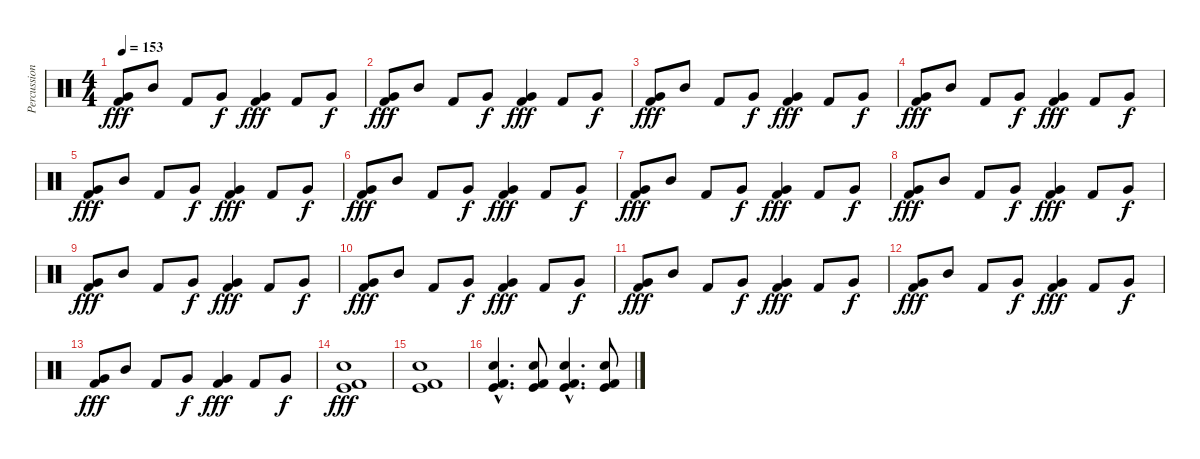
\track ("Percussion" "Percussion") {instrument percussion}
\staff {score}
\articulation defaults
\ts (4 4)
\tempo 153
\clef neutral
\ks c
("Very Low Tom (hit)" "Kick (hit) 2").8{dy fff} "Mid Tom (hit)".8 "Kick (hit) 2".8 "Very Low Tom (hit)".8{dy f} ("Very Low Tom (hit)" "Kick (hit) 2").4{dy fff} "Kick (hit) 2".8 "Very Low Tom (hit)".8{dy f} |
("Very Low Tom (hit)" "Kick (hit) 2").8{dy fff} "Mid Tom (hit)".8 "Kick (hit) 2".8 "Very Low Tom (hit)".8{dy f} ("Very Low Tom (hit)" "Kick (hit) 2").4{dy fff} "Kick (hit) 2".8 "Very Low Tom (hit)".8{dy f} |
("Very Low Tom (hit)" "Kick (hit) 2").8{dy fff} "Mid Tom (hit)".8 "Kick (hit) 2".8 "Very Low Tom (hit)".8{dy f} ("Very Low Tom (hit)" "Kick (hit) 2").4{dy fff} "Kick (hit) 2".8 "Very Low Tom (hit)".8{dy f} |
("Very Low Tom (hit)" "Kick (hit) 2").8{dy fff} "Mid Tom (hit)".8 "Kick (hit) 2".8 "Very Low Tom (hit)".8{dy f} ("Very Low Tom (hit)" "Kick (hit) 2").4{dy fff} "Kick (hit) 2".8 "Very Low Tom (hit)".8{dy f} |
("Very Low Tom (hit)" "Kick (hit) 2").8{dy fff} "Mid Tom (hit)".8 "Kick (hit) 2".8 "Very Low Tom (hit)".8{dy f} ("Very Low Tom (hit)" "Kick (hit) 2").4{dy fff} "Kick (hit) 2".8 "Very Low Tom (hit)".8{dy f} |
("Very Low Tom (hit)" "Kick (hit) 2").8{dy fff} "Mid Tom (hit)".8 "Kick (hit) 2".8 "Very Low Tom (hit)".8{dy f} ("Very Low Tom (hit)" "Kick (hit) 2").4{dy fff} "Kick (hit) 2".8 "Very Low Tom (hit)".8{dy f} |
("Very Low Tom (hit)" "Kick (hit) 2").8{dy fff} "Mid Tom (hit)".8 "Kick (hit) 2".8 "Very Low Tom (hit)".8{dy f} ("Very Low Tom (hit)" "Kick (hit) 2").4{dy fff} "Kick (hit) 2".8 "Very Low Tom (hit)".8{dy f} |
("Very Low Tom (hit)" "Kick (hit) 2").8{dy fff} "Mid Tom (hit)".8 "Kick (hit) 2".8 "Very Low Tom (hit)".8{dy f} ("Very Low Tom (hit)" "Kick (hit) 2").4{dy fff} "Kick (hit) 2".8 "Very Low Tom (hit)".8{dy f} |
("Very Low Tom (hit)" "Kick (hit) 2").8{dy fff} "Mid Tom (hit)".8 "Kick (hit) 2".8 "Very Low Tom (hit)".8{dy f} ("Very Low Tom (hit)" "Kick (hit) 2").4{dy fff} "Kick (hit) 2".8 "Very Low Tom (hit)".8{dy f} |
("Very Low Tom (hit)" "Kick (hit) 2").8{dy fff} "Mid Tom (hit)".8 "Kick (hit) 2".8 "Very Low Tom (hit)".8{dy f} ("Very Low Tom (hit)" "Kick (hit) 2").4{dy fff} "Kick (hit) 2".8 "Very Low Tom (hit)".8{dy f} |
("Very Low Tom (hit)" "Kick (hit) 2").8{dy fff} "Mid Tom (hit)".8 "Kick (hit) 2".8 "Very Low Tom (hit)".8{dy f} ("Very Low Tom (hit)" "Kick (hit) 2").4{dy fff} "Kick (hit) 2".8 "Very Low Tom (hit)".8{dy f} |
("Very Low Tom (hit)" "Kick (hit) 2").8{dy fff} "Mid Tom (hit)".8 "Kick (hit) 2".8 "Very Low Tom (hit)".8{dy f} ("Very Low Tom (hit)" "Kick (hit) 2").4{dy fff} "Kick (hit) 2".8 "Very Low Tom (hit)".8{dy f} |
("Very Low Tom (hit)" "Kick (hit) 2").8{dy fff} "Mid Tom (hit)".8 "Kick (hit) 2".8 "Very Low Tom (hit)".8{dy f} ("Very Low Tom (hit)" "Kick (hit) 2").4{dy fff} "Kick (hit) 2".8 "Very Low Tom (hit)".8{dy f} |
("Snare (hit) 2" "Kick (hit)" "Kick (hit) 2").1{dy fff} |
("Snare (hit) 2" "Kick (hit)" "Kick (hit) 2").1 |
("Snare (hit) 2"{hac} "Kick (hit)"{hac} "Kick (hit) 2"{hac}).4{d} ("Snare (hit) 2" "Kick (hit)" "Kick (hit) 2").8 ("Snare (hit) 2"{hac} "Kick (hit)"{hac} "Kick (hit) 2"{hac}).4{d} ("Snare (hit) 2" "Kick (hit)" "Kick (hit) 2").8
